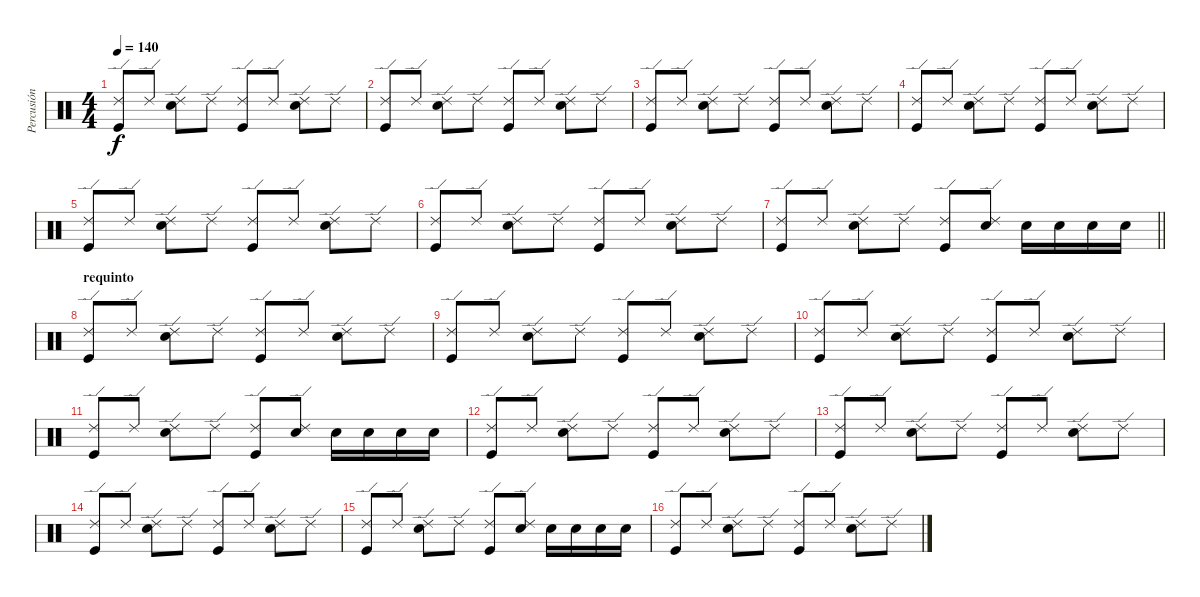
\track ("Percusión" "Percusión") {instrument percussion}
\staff {score}
\articulation defaults
\ts (4 4)
\tempo 140
\clef neutral
\ks c
("Ride (edge) 2" "Kick (hit)").8{dy f} "Ride (edge) 2".8 ("Ride (edge) 2" "Snare (hit) 2").8 "Ride (edge) 2".8 ("Ride (edge) 2" "Kick (hit)").8 "Ride (edge) 2".8 ("Ride (edge) 2" "Snare (hit) 2").8 "Ride (edge) 2".8 |
("Ride (edge) 2" "Kick (hit)").8 "Ride (edge) 2".8 ("Ride (edge) 2" "Snare (hit) 2").8 "Ride (edge) 2".8 ("Ride (edge) 2" "Kick (hit)").8 "Ride (edge) 2".8 ("Ride (edge) 2" "Snare (hit) 2").8 "Ride (edge) 2".8 |
("Ride (edge) 2" "Kick (hit)").8 "Ride (edge) 2".8 ("Ride (edge) 2" "Snare (hit) 2").8 "Ride (edge) 2".8 ("Ride (edge) 2" "Kick (hit)").8 "Ride (edge) 2".8 ("Ride (edge) 2" "Snare (hit) 2").8 "Ride (edge) 2".8 |
("Ride (edge) 2" "Kick (hit)").8 "Ride (edge) 2".8 ("Ride (edge) 2" "Snare (hit) 2").8 "Ride (edge) 2".8 ("Ride (edge) 2" "Kick (hit)").8 "Ride (edge) 2".8 ("Ride (edge) 2" "Snare (hit) 2").8 "Ride (edge) 2".8 |
("Ride (edge) 2" "Kick (hit)").8 "Ride (edge) 2".8 ("Ride (edge) 2" "Snare (hit) 2").8 "Ride (edge) 2".8 ("Ride (edge) 2" "Kick (hit)").8 "Ride (edge) 2".8 ("Ride (edge) 2" "Snare (hit) 2").8 "Ride (edge) 2".8 |
("Ride (edge) 2" "Kick (hit)").8 "Ride (edge) 2".8 ("Ride (edge) 2" "Snare (hit) 2").8 "Ride (edge) 2".8 ("Ride (edge) 2" "Kick (hit)").8 "Ride (edge) 2".8 ("Ride (edge) 2" "Snare (hit) 2").8 "Ride (edge) 2".8 |
\barLineRight lightlight
("Ride (edge) 2" "Kick (hit)").8 "Ride (edge) 2".8 ("Ride (edge) 2" "Snare (hit) 2").8 "Ride (edge) 2".8 ("Ride (edge) 2" "Kick (hit)").8 ("Ride (edge) 2" "Snare (hit) 2").8 "Snare (hit) 2".16 "Snare (hit) 2".16 "Snare (hit) 2".16 "Snare (hit) 2".16 |
\section ("" "requinto")
("Ride (edge) 2" "Kick (hit)").8 "Ride (edge) 2".8 ("Ride (edge) 2" "Snare (hit) 2").8 "Ride (edge) 2".8 ("Ride (edge) 2" "Kick (hit)").8 "Ride (edge) 2".8 ("Ride (edge) 2" "Snare (hit) 2").8 "Ride (edge) 2".8 |
("Ride (edge) 2" "Kick (hit)").8 "Ride (edge) 2".8 ("Ride (edge) 2" "Snare (hit) 2").8 "Ride (edge) 2".8 ("Ride (edge) 2" "Kick (hit)").8 "Ride (edge) 2".8 ("Ride (edge) 2" "Snare (hit) 2").8 "Ride (edge) 2".8 |
("Ride (edge) 2" "Kick (hit)").8 "Ride (edge) 2".8 ("Ride (edge) 2" "Snare (hit) 2").8 "Ride (edge) 2".8 ("Ride (edge) 2" "Kick (hit)").8 "Ride (edge) 2".8 ("Ride (edge) 2" "Snare (hit) 2").8 "Ride (edge) 2".8 |
("Ride (edge) 2" "Kick (hit)").8 "Ride (edge) 2".8 ("Ride (edge) 2" "Snare (hit) 2").8 "Ride (edge) 2".8 ("Ride (edge) 2" "Kick (hit)").8 ("Ride (edge) 2" "Snare (hit) 2").8 "Snare (hit) 2".16 "Snare (hit) 2".16 "Snare (hit) 2".16 "Snare (hit) 2".16 |
("Ride (edge) 2" "Kick (hit)").8 "Ride (edge) 2".8 ("Ride (edge) 2" "Snare (hit) 2").8 "Ride (edge) 2".8 ("Ride (edge) 2" "Kick (hit)").8 "Ride (edge) 2".8 ("Ride (edge) 2" "Snare (hit) 2").8 "Ride (edge) 2".8 |
("Ride (edge) 2" "Kick (hit)").8 "Ride (edge) 2".8 ("Ride (edge) 2" "Snare (hit) 2").8 "Ride (edge) 2".8 ("Ride (edge) 2" "Kick (hit)").8 "Ride (edge) 2".8 ("Ride (edge) 2" "Snare (hit) 2").8 "Ride (edge) 2".8 |
("Ride (edge) 2" "Kick (hit)").8 "Ride (edge) 2".8 ("Ride (edge) 2" "Snare (hit) 2").8 "Ride (edge) 2".8 ("Ride (edge) 2" "Kick (hit)").8 "Ride (edge) 2".8 ("Ride (edge) 2" "Snare (hit) 2").8 "Ride (edge) 2".8 |
("Ride (edge) 2" "Kick (hit)").8 "Ride (edge) 2".8 ("Ride (edge) 2" "Snare (hit) 2").8 "Ride (edge) 2".8 ("Ride (edge) 2" "Kick (hit)").8 ("Ride (edge) 2" "Snare (hit) 2").8 "Snare (hit) 2".16 "Snare (hit) 2".16 "Snare (hit) 2".16 "Snare (hit) 2".16 |
("Ride (edge) 2" "Kick (hit)").8 "Ride (edge) 2".8 ("Ride (edge) 2" "Snare (hit) 2").8 "Ride (edge) 2".8 ("Ride (edge) 2" "Kick (hit)").8 "Ride (edge) 2".8 ("Ride (edge) 2" "Snare (hit) 2").8 "Ride (edge) 2".8
